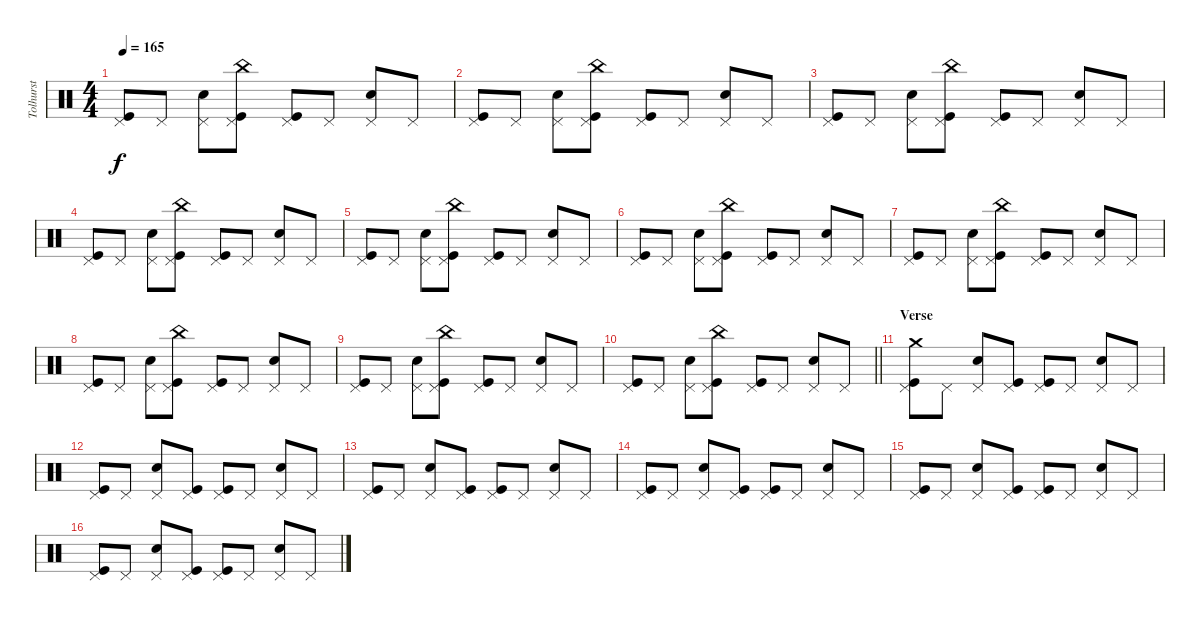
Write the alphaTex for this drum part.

\track ("Tolhurst" "Tolhurst") {instrument percussion}
\staff {score}
\articulation defaults
\ts (4 4)
\tempo 165
\clef neutral
\ks c
("Pedal Hi-Hat (hit)" "Kick (hit)").8{dy f} "Pedal Hi-Hat (hit)".8 ("Pedal Hi-Hat (hit)" "Snare (hit) 2").8 ("China (hit)" "Pedal Hi-Hat (hit)" "Kick (hit)").8 ("Pedal Hi-Hat (hit)" "Kick (hit)").8 "Pedal Hi-Hat (hit)".8 ("Pedal Hi-Hat (hit)" "Snare (hit) 2").8 "Pedal Hi-Hat (hit)".8 |
("Pedal Hi-Hat (hit)" "Kick (hit)").8 "Pedal Hi-Hat (hit)".8 ("Pedal Hi-Hat (hit)" "Snare (hit) 2").8 ("China (hit)" "Pedal Hi-Hat (hit)" "Kick (hit)").8 ("Pedal Hi-Hat (hit)" "Kick (hit)").8 "Pedal Hi-Hat (hit)".8 ("Pedal Hi-Hat (hit)" "Snare (hit) 2").8 "Pedal Hi-Hat (hit)".8 |
("Pedal Hi-Hat (hit)" "Kick (hit)").8 "Pedal Hi-Hat (hit)".8 ("Pedal Hi-Hat (hit)" "Snare (hit) 2").8 ("China (hit)" "Pedal Hi-Hat (hit)" "Kick (hit)").8 ("Pedal Hi-Hat (hit)" "Kick (hit)").8 "Pedal Hi-Hat (hit)".8 ("Pedal Hi-Hat (hit)" "Snare (hit) 2").8 "Pedal Hi-Hat (hit)".8 |
("Pedal Hi-Hat (hit)" "Kick (hit)").8 "Pedal Hi-Hat (hit)".8 ("Pedal Hi-Hat (hit)" "Snare (hit) 2").8 ("China (hit)" "Pedal Hi-Hat (hit)" "Kick (hit)").8 ("Pedal Hi-Hat (hit)" "Kick (hit)").8 "Pedal Hi-Hat (hit)".8 ("Pedal Hi-Hat (hit)" "Snare (hit) 2").8 "Pedal Hi-Hat (hit)".8 |
("Pedal Hi-Hat (hit)" "Kick (hit)").8 "Pedal Hi-Hat (hit)".8 ("Pedal Hi-Hat (hit)" "Snare (hit) 2").8 ("China (hit)" "Pedal Hi-Hat (hit)" "Kick (hit)").8 ("Pedal Hi-Hat (hit)" "Kick (hit)").8 "Pedal Hi-Hat (hit)".8 ("Pedal Hi-Hat (hit)" "Snare (hit) 2").8 "Pedal Hi-Hat (hit)".8 |
("Pedal Hi-Hat (hit)" "Kick (hit)").8 "Pedal Hi-Hat (hit)".8 ("Pedal Hi-Hat (hit)" "Snare (hit) 2").8 ("China (hit)" "Pedal Hi-Hat (hit)" "Kick (hit)").8 ("Pedal Hi-Hat (hit)" "Kick (hit)").8 "Pedal Hi-Hat (hit)".8 ("Pedal Hi-Hat (hit)" "Snare (hit) 2").8 "Pedal Hi-Hat (hit)".8 |
("Pedal Hi-Hat (hit)" "Kick (hit)").8 "Pedal Hi-Hat (hit)".8 ("Pedal Hi-Hat (hit)" "Snare (hit) 2").8 ("China (hit)" "Pedal Hi-Hat (hit)" "Kick (hit)").8 ("Pedal Hi-Hat (hit)" "Kick (hit)").8 "Pedal Hi-Hat (hit)".8 ("Pedal Hi-Hat (hit)" "Snare (hit) 2").8 "Pedal Hi-Hat (hit)".8 |
("Pedal Hi-Hat (hit)" "Kick (hit)").8 "Pedal Hi-Hat (hit)".8 ("Pedal Hi-Hat (hit)" "Snare (hit) 2").8 ("China (hit)" "Pedal Hi-Hat (hit)" "Kick (hit)").8 ("Pedal Hi-Hat (hit)" "Kick (hit)").8 "Pedal Hi-Hat (hit)".8 ("Pedal Hi-Hat (hit)" "Snare (hit) 2").8 "Pedal Hi-Hat (hit)".8 |
("Pedal Hi-Hat (hit)" "Kick (hit)").8 "Pedal Hi-Hat (hit)".8 ("Pedal Hi-Hat (hit)" "Snare (hit) 2").8 ("China (hit)" "Pedal Hi-Hat (hit)" "Kick (hit)").8 ("Pedal Hi-Hat (hit)" "Kick (hit)").8 "Pedal Hi-Hat (hit)".8 ("Pedal Hi-Hat (hit)" "Snare (hit) 2").8 "Pedal Hi-Hat (hit)".8 |
\barLineRight lightlight
("Pedal Hi-Hat (hit)" "Kick (hit)").8 "Pedal Hi-Hat (hit)".8 ("Pedal Hi-Hat (hit)" "Snare (hit) 2").8 ("China (hit)" "Pedal Hi-Hat (hit)" "Kick (hit)").8 ("Pedal Hi-Hat (hit)" "Kick (hit)").8 "Pedal Hi-Hat (hit)".8 ("Pedal Hi-Hat (hit)" "Snare (hit) 2").8 "Pedal Hi-Hat (hit)".8 |
\section ("" "Verse")
("Crash medium (hit)" "Pedal Hi-Hat (hit)" "Kick (hit)").8 "Pedal Hi-Hat (hit)".8 ("Pedal Hi-Hat (hit)" "Snare (hit) 2").8 ("Pedal Hi-Hat (hit)" "Kick (hit)").8 ("Pedal Hi-Hat (hit)" "Kick (hit)").8 "Pedal Hi-Hat (hit)".8 ("Pedal Hi-Hat (hit)" "Snare (hit) 2").8 "Pedal Hi-Hat (hit)".8 |
("Pedal Hi-Hat (hit)" "Kick (hit)").8 "Pedal Hi-Hat (hit)".8 ("Pedal Hi-Hat (hit)" "Snare (hit) 2").8 ("Pedal Hi-Hat (hit)" "Kick (hit)").8 ("Pedal Hi-Hat (hit)" "Kick (hit)").8 "Pedal Hi-Hat (hit)".8 ("Pedal Hi-Hat (hit)" "Snare (hit) 2").8 "Pedal Hi-Hat (hit)".8 |
("Pedal Hi-Hat (hit)" "Kick (hit)").8 "Pedal Hi-Hat (hit)".8 ("Pedal Hi-Hat (hit)" "Snare (hit) 2").8 ("Pedal Hi-Hat (hit)" "Kick (hit)").8 ("Pedal Hi-Hat (hit)" "Kick (hit)").8 "Pedal Hi-Hat (hit)".8 ("Pedal Hi-Hat (hit)" "Snare (hit) 2").8 "Pedal Hi-Hat (hit)".8 |
("Pedal Hi-Hat (hit)" "Kick (hit)").8 "Pedal Hi-Hat (hit)".8 ("Pedal Hi-Hat (hit)" "Snare (hit) 2").8 ("Pedal Hi-Hat (hit)" "Kick (hit)").8 ("Pedal Hi-Hat (hit)" "Kick (hit)").8 "Pedal Hi-Hat (hit)".8 ("Pedal Hi-Hat (hit)" "Snare (hit) 2").8 "Pedal Hi-Hat (hit)".8 |
("Pedal Hi-Hat (hit)" "Kick (hit)").8 "Pedal Hi-Hat (hit)".8 ("Pedal Hi-Hat (hit)" "Snare (hit) 2").8 ("Pedal Hi-Hat (hit)" "Kick (hit)").8 ("Pedal Hi-Hat (hit)" "Kick (hit)").8 "Pedal Hi-Hat (hit)".8 ("Pedal Hi-Hat (hit)" "Snare (hit) 2").8 "Pedal Hi-Hat (hit)".8 |
("Pedal Hi-Hat (hit)" "Kick (hit)").8 "Pedal Hi-Hat (hit)".8 ("Pedal Hi-Hat (hit)" "Snare (hit) 2").8 ("Pedal Hi-Hat (hit)" "Kick (hit)").8 ("Pedal Hi-Hat (hit)" "Kick (hit)").8 "Pedal Hi-Hat (hit)".8 ("Pedal Hi-Hat (hit)" "Snare (hit) 2").8 "Pedal Hi-Hat (hit)".8
